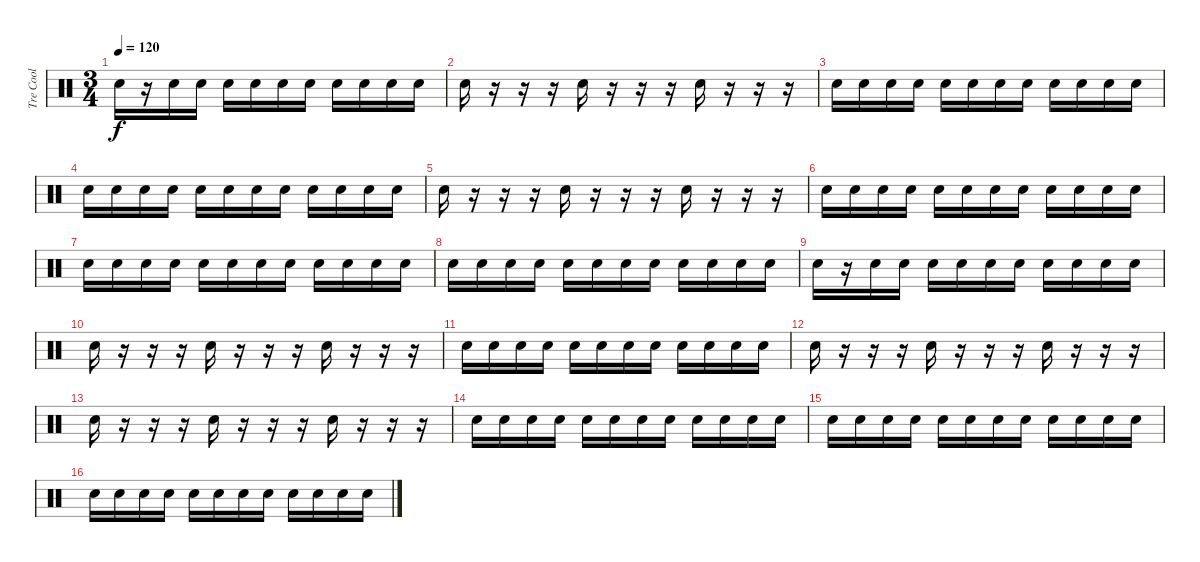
\track ("Tre Cool" "Tre Cool") {instrument percussion}
\staff {score}
\articulation defaults
\ts (3 4)
\tempo 120
\clef neutral
\ks c "Snare (hit) 2".16{dy f}
r.16 "Snare (hit) 2".16 "Snare (hit) 2".16 "Snare (hit) 2".16 "Snare (hit) 2".16 "Snare (hit) 2".16 "Snare (hit) 2".16 "Snare (hit) 2".16 "Snare (hit) 2".16 "Snare (hit) 2".16 "Snare (hit) 2".16 |
"Snare (hit) 2".16 r.16 r.16 r.16 "Snare (hit) 2".16 r.16 r.16 r.16 "Snare (hit) 2".16 r.16 r.16 r.16 |
"Snare (hit) 2".16 "Snare (hit) 2".16 "Snare (hit) 2".16 "Snare (hit) 2".16 "Snare (hit) 2".16 "Snare (hit) 2".16 "Snare (hit) 2".16 "Snare (hit) 2".16 "Snare (hit) 2".16 "Snare (hit) 2".16 "Snare (hit) 2".16 "Snare (hit) 2".16 |
"Snare (hit) 2".16 "Snare (hit) 2".16 "Snare (hit) 2".16 "Snare (hit) 2".16 "Snare (hit) 2".16 "Snare (hit) 2".16 "Snare (hit) 2".16 "Snare (hit) 2".16 "Snare (hit) 2".16 "Snare (hit) 2".16 "Snare (hit) 2".16 "Snare (hit) 2".16 |
"Snare (hit) 2".16 r.16 r.16 r.16 "Snare (hit) 2".16 r.16 r.16 r.16 "Snare (hit) 2".16 r.16 r.16 r.16 |
"Snare (hit) 2".16 "Snare (hit) 2".16 "Snare (hit) 2".16 "Snare (hit) 2".16 "Snare (hit) 2".16 "Snare (hit) 2".16 "Snare (hit) 2".16 "Snare (hit) 2".16 "Snare (hit) 2".16 "Snare (hit) 2".16 "Snare (hit) 2".16 "Snare (hit) 2".16 |
"Snare (hit) 2".16 "Snare (hit) 2".16 "Snare (hit) 2".16 "Snare (hit) 2".16 "Snare (hit) 2".16 "Snare (hit) 2".16 "Snare (hit) 2".16 "Snare (hit) 2".16 "Snare (hit) 2".16 "Snare (hit) 2".16 "Snare (hit) 2".16 "Snare (hit) 2".16 |
"Snare (hit) 2".16 "Snare (hit) 2".16 "Snare (hit) 2".16 "Snare (hit) 2".16 "Snare (hit) 2".16 "Snare (hit) 2".16 "Snare (hit) 2".16 "Snare (hit) 2".16 "Snare (hit) 2".16 "Snare (hit) 2".16 "Snare (hit) 2".16 "Snare (hit) 2".16 |
"Snare (hit) 2".16 r.16 "Snare (hit) 2".16 "Snare (hit) 2".16 "Snare (hit) 2".16 "Snare (hit) 2".16 "Snare (hit) 2".16 "Snare (hit) 2".16 "Snare (hit) 2".16 "Snare (hit) 2".16 "Snare (hit) 2".16 "Snare (hit) 2".16 |
"Snare (hit) 2".16 r.16 r.16 r.16 "Snare (hit) 2".16 r.16 r.16 r.16 "Snare (hit) 2".16 r.16 r.16 r.16 |
"Snare (hit) 2".16 "Snare (hit) 2".16 "Snare (hit) 2".16 "Snare (hit) 2".16 "Snare (hit) 2".16 "Snare (hit) 2".16 "Snare (hit) 2".16 "Snare (hit) 2".16 "Snare (hit) 2".16 "Snare (hit) 2".16 "Snare (hit) 2".16 "Snare (hit) 2".16 |
"Snare (hit) 2".16 r.16 r.16 r.16 "Snare (hit) 2".16 r.16 r.16 r.16 "Snare (hit) 2".16 r.16 r.16 r.16 |
"Snare (hit) 2".16 r.16 r.16 r.16 "Snare (hit) 2".16 r.16 r.16 r.16 "Snare (hit) 2".16 r.16 r.16 r.16 |
"Snare (hit) 2".16 "Snare (hit) 2".16 "Snare (hit) 2".16 "Snare (hit) 2".16 "Snare (hit) 2".16 "Snare (hit) 2".16 "Snare (hit) 2".16 "Snare (hit) 2".16 "Snare (hit) 2".16 "Snare (hit) 2".16 "Snare (hit) 2".16 "Snare (hit) 2".16 |
"Snare (hit) 2".16 "Snare (hit) 2".16 "Snare (hit) 2".16 "Snare (hit) 2".16 "Snare (hit) 2".16 "Snare (hit) 2".16 "Snare (hit) 2".16 "Snare (hit) 2".16 "Snare (hit) 2".16 "Snare (hit) 2".16 "Snare (hit) 2".16 "Snare (hit) 2".16 |
"Snare (hit) 2".16 "Snare (hit) 2".16 "Snare (hit) 2".16 "Snare (hit) 2".16 "Snare (hit) 2".16 "Snare (hit) 2".16 "Snare (hit) 2".16 "Snare (hit) 2".16 "Snare (hit) 2".16 "Snare (hit) 2".16 "Snare (hit) 2".16 "Snare (hit) 2".16
